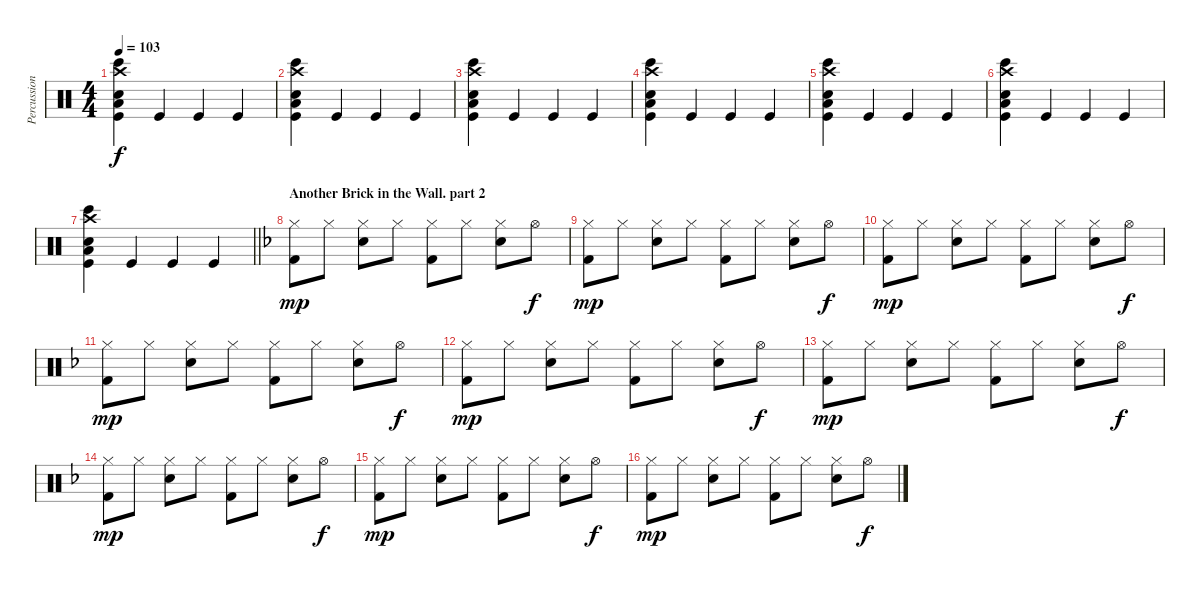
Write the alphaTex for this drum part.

\track ("Percussions" "Percussion") {instrument percussion}
\staff {score}
\articulation defaults
\ts (4 4)
\tempo 103
\clef neutral
\ks c
("Kick (hit)" "Snare (hit) 2" "Bongo High (hit)" "Low Floor Tom (hit)" "Crash high (hit)").4{dy f} "Kick (hit)".4 "Kick (hit)".4 "Kick (hit)".4 |
("Kick (hit)" "Snare (hit) 2" "Bongo High (hit)" "Low Floor Tom (hit)" "Crash high (hit)").4 "Kick (hit)".4 "Kick (hit)".4 "Kick (hit)".4 |
("Kick (hit)" "Snare (hit) 2" "Bongo High (hit)" "Low Floor Tom (hit)" "Crash high (hit)").4 "Kick (hit)".4 "Kick (hit)".4 "Kick (hit)".4 |
("Kick (hit)" "Snare (hit) 2" "Bongo High (hit)" "Low Floor Tom (hit)" "Crash high (hit)").4 "Kick (hit)".4 "Kick (hit)".4 "Kick (hit)".4 |
("Kick (hit)" "Snare (hit) 2" "Bongo High (hit)" "Low Floor Tom (hit)" "Crash high (hit)").4 "Kick (hit)".4 "Kick (hit)".4 "Kick (hit)".4 |
("Kick (hit)" "Snare (hit) 2" "Bongo High (hit)" "Low Floor Tom (hit)" "Crash high (hit)").4 "Kick (hit)".4 "Kick (hit)".4 "Kick (hit)".4 |
\barLineRight lightlight
("Kick (hit)" "Snare (hit) 2" "Bongo High (hit)" "Low Floor Tom (hit)" "Crash high (hit)").4 "Kick (hit)".4 "Kick (hit)".4 "Kick (hit)".4 |
\section ("" "Another Brick in the Wall. part 2")
\ks dminor
("Hi-Hat (closed)" "Kick (hit) 2").8{dy mp} "Hi-Hat (closed)".8 ("Hi-Hat (closed)" "Snare (hit) 2").8 "Hi-Hat (closed)".8 ("Hi-Hat (closed)" "Kick (hit) 2").8 "Hi-Hat (closed)".8 ("Hi-Hat (closed)" "Snare (hit) 2").8 "Hi-Hat (open)".8{dy f} |
("Hi-Hat (closed)" "Kick (hit) 2").8{dy mp} "Hi-Hat (closed)".8 ("Hi-Hat (closed)" "Snare (hit) 2").8 "Hi-Hat (closed)".8 ("Hi-Hat (closed)" "Kick (hit) 2").8 "Hi-Hat (closed)".8 ("Hi-Hat (closed)" "Snare (hit) 2").8 "Hi-Hat (open)".8{dy f} |
("Hi-Hat (closed)" "Kick (hit) 2").8{dy mp} "Hi-Hat (closed)".8 ("Hi-Hat (closed)" "Snare (hit) 2").8 "Hi-Hat (closed)".8 ("Hi-Hat (closed)" "Kick (hit) 2").8 "Hi-Hat (closed)".8 ("Hi-Hat (closed)" "Snare (hit) 2").8 "Hi-Hat (open)".8{dy f} |
("Hi-Hat (closed)" "Kick (hit) 2").8{dy mp} "Hi-Hat (closed)".8 ("Hi-Hat (closed)" "Snare (hit) 2").8 "Hi-Hat (closed)".8 ("Hi-Hat (closed)" "Kick (hit) 2").8 "Hi-Hat (closed)".8 ("Hi-Hat (closed)" "Snare (hit) 2").8 "Hi-Hat (open)".8{dy f} |
("Hi-Hat (closed)" "Kick (hit) 2").8{dy mp} "Hi-Hat (closed)".8 ("Hi-Hat (closed)" "Snare (hit) 2").8 "Hi-Hat (closed)".8 ("Hi-Hat (closed)" "Kick (hit) 2").8 "Hi-Hat (closed)".8 ("Hi-Hat (closed)" "Snare (hit) 2").8 "Hi-Hat (open)".8{dy f} |
("Hi-Hat (closed)" "Kick (hit) 2").8{dy mp} "Hi-Hat (closed)".8 ("Hi-Hat (closed)" "Snare (hit) 2").8 "Hi-Hat (closed)".8 ("Hi-Hat (closed)" "Kick (hit) 2").8 "Hi-Hat (closed)".8 ("Hi-Hat (closed)" "Snare (hit) 2").8 "Hi-Hat (open)".8{dy f} |
("Hi-Hat (closed)" "Kick (hit) 2").8{dy mp} "Hi-Hat (closed)".8 ("Hi-Hat (closed)" "Snare (hit) 2").8 "Hi-Hat (closed)".8 ("Hi-Hat (closed)" "Kick (hit) 2").8 "Hi-Hat (closed)".8 ("Hi-Hat (closed)" "Snare (hit) 2").8 "Hi-Hat (open)".8{dy f} |
("Hi-Hat (closed)" "Kick (hit) 2").8{dy mp} "Hi-Hat (closed)".8 ("Hi-Hat (closed)" "Snare (hit) 2").8 "Hi-Hat (closed)".8 ("Hi-Hat (closed)" "Kick (hit) 2").8 "Hi-Hat (closed)".8 ("Hi-Hat (closed)" "Snare (hit) 2").8 "Hi-Hat (open)".8{dy f} |
("Hi-Hat (closed)" "Kick (hit) 2").8{dy mp} "Hi-Hat (closed)".8 ("Hi-Hat (closed)" "Snare (hit) 2").8 "Hi-Hat (closed)".8 ("Hi-Hat (closed)" "Kick (hit) 2").8 "Hi-Hat (closed)".8 ("Hi-Hat (closed)" "Snare (hit) 2").8 "Hi-Hat (open)".8{dy f}
